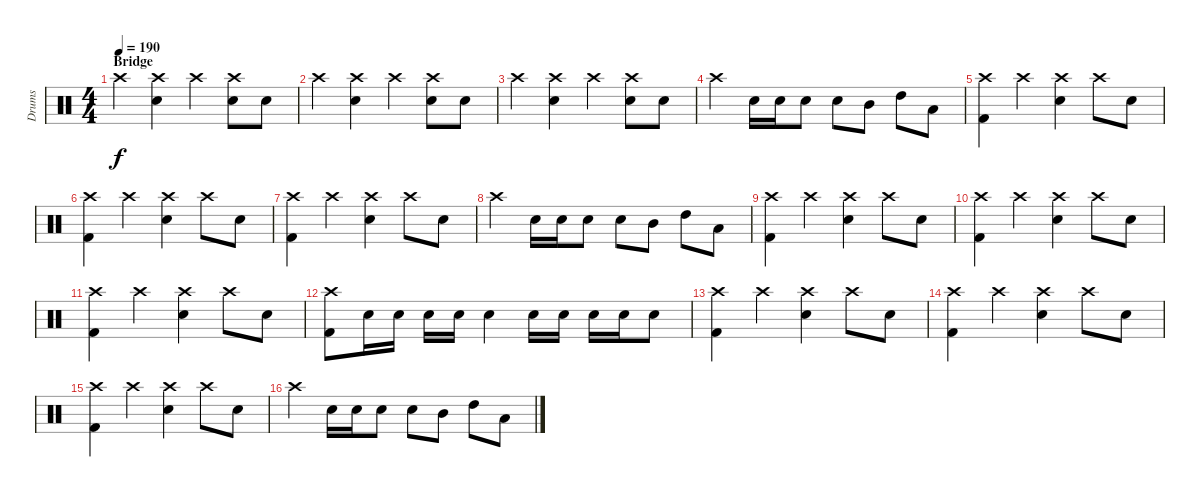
\track ("Drums" "Drums") {instrument percussion}
\staff {score}
\articulation defaults
\ts (4 4)
\section ("" "Bridge")
\tempo 190
\clef neutral
\ks c "Crash high (hit)".4{dy f}
("Crash high (hit)" "Electric Snare (hit)").4 "Crash high (hit)".4 ("Crash high (hit)" "Electric Snare (hit)").8 "Electric Snare (hit)".8 |
"Crash high (hit)".4 ("Crash high (hit)" "Electric Snare (hit)").4 "Crash high (hit)".4 ("Crash high (hit)" "Electric Snare (hit)").8 "Electric Snare (hit)".8 |
"Crash high (hit)".4 ("Crash high (hit)" "Electric Snare (hit)").4 "Crash high (hit)".4 ("Crash high (hit)" "Electric Snare (hit)").8 "Electric Snare (hit)".8 |
"Crash high (hit)".4 "Electric Snare (hit)".16 "Electric Snare (hit)".16 "Electric Snare (hit)".8 "Electric Snare (hit)".8 "Mid Tom (hit)".8 "High Tom (hit)".8 "Low Floor Tom (hit)".8 |
("Crash high (hit)" "Kick (hit) 2").4 "Crash high (hit)".4 ("Crash high (hit)" "Electric Snare (hit)").4 "Crash high (hit)".8 "Electric Snare (hit)".8 |
("Crash high (hit)" "Kick (hit) 2").4 "Crash high (hit)".4 ("Crash high (hit)" "Electric Snare (hit)").4 "Crash high (hit)".8 "Electric Snare (hit)".8 |
("Crash high (hit)" "Kick (hit) 2").4 "Crash high (hit)".4 ("Crash high (hit)" "Electric Snare (hit)").4 "Crash high (hit)".8 "Electric Snare (hit)".8 |
"Crash high (hit)".4 "Electric Snare (hit)".16 "Electric Snare (hit)".16 "Electric Snare (hit)".8 "Electric Snare (hit)".8 "Mid Tom (hit)".8 "High Tom (hit)".8 "Low Floor Tom (hit)".8 |
("Crash high (hit)" "Kick (hit) 2").4 "Crash high (hit)".4 ("Crash high (hit)" "Electric Snare (hit)").4 "Crash high (hit)".8 "Electric Snare (hit)".8 |
("Crash high (hit)" "Kick (hit) 2").4 "Crash high (hit)".4 ("Crash high (hit)" "Electric Snare (hit)").4 "Crash high (hit)".8 "Electric Snare (hit)".8 |
("Crash high (hit)" "Kick (hit) 2").4 "Crash high (hit)".4 ("Crash high (hit)" "Electric Snare (hit)").4 "Crash high (hit)".8 "Electric Snare (hit)".8 |
("Crash high (hit)" "Kick (hit) 2").8 "Electric Snare (hit)".16 "Electric Snare (hit)".16 "Electric Snare (hit)".16 "Electric Snare (hit)".16 "Electric Snare (hit)".4 "Electric Snare (hit)".16 "Electric Snare (hit)".16 "Electric Snare (hit)".16 "Electric Snare (hit)".16 "Electric Snare (hit)".8 |
("Crash high (hit)" "Kick (hit) 2").4 "Crash high (hit)".4 ("Crash high (hit)" "Electric Snare (hit)").4 "Crash high (hit)".8 "Electric Snare (hit)".8 |
("Crash high (hit)" "Kick (hit) 2").4 "Crash high (hit)".4 ("Crash high (hit)" "Electric Snare (hit)").4 "Crash high (hit)".8 "Electric Snare (hit)".8 |
("Crash high (hit)" "Kick (hit) 2").4 "Crash high (hit)".4 ("Crash high (hit)" "Electric Snare (hit)").4 "Crash high (hit)".8 "Electric Snare (hit)".8 |
"Crash high (hit)".4 "Electric Snare (hit)".16 "Electric Snare (hit)".16 "Electric Snare (hit)".8 "Electric Snare (hit)".8 "Mid Tom (hit)".8 "High Tom (hit)".8 "Low Floor Tom (hit)".8
